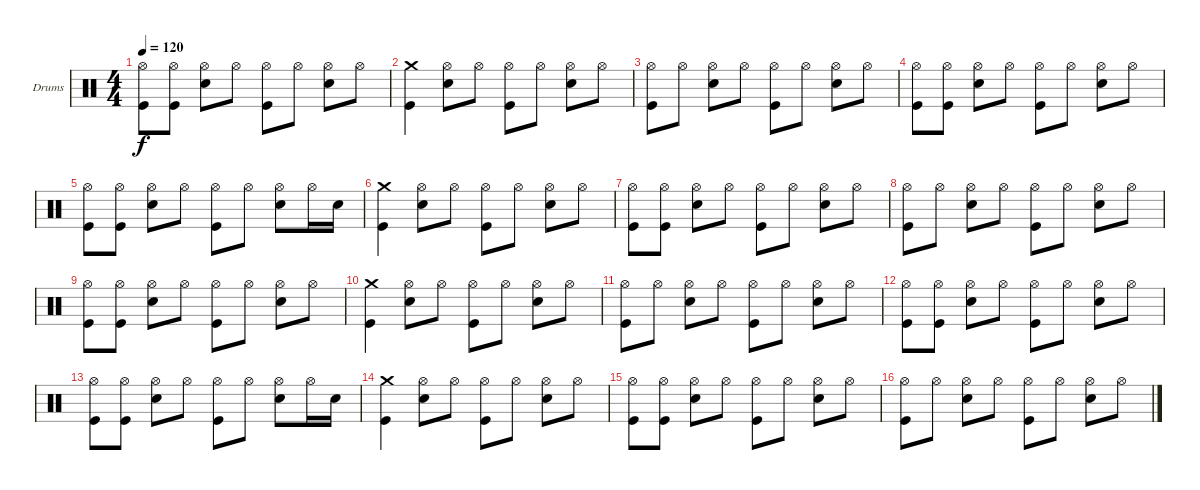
\defaultSystemsLayout 4
\bracketExtendMode groupsimilarinstruments
\firstSystemTrackNameOrientation horizontal
\otherSystemsTrackNameOrientation horizontal
\track ("Drums" "Drums") {instrument percussion}
\staff {score}
\articulation defaults
\ts (4 4)
\tempo 120
\clef neutral
\ks c
("Kick (hit)" "Hi-Hat (open)").8{dy f} ("Hi-Hat (open)" "Kick (hit)").8 ("Hi-Hat (open)" "Snare (hit) 2").8 "Hi-Hat (open)".8 ("Hi-Hat (open)" "Kick (hit)").8 "Hi-Hat (open)".8 ("Hi-Hat (open)" "Snare (hit) 2").8 "Hi-Hat (open)".8 |
("Kick (hit)" "Crash medium (hit)").4 ("Hi-Hat (open)" "Snare (hit) 2").8 "Hi-Hat (open)".8 ("Hi-Hat (open)" "Kick (hit)").8 "Hi-Hat (open)".8 ("Hi-Hat (open)" "Snare (hit) 2").8 "Hi-Hat (open)".8 |
("Kick (hit)" "Hi-Hat (open)").8 "Hi-Hat (open)".8 ("Hi-Hat (open)" "Snare (hit) 2").8 "Hi-Hat (open)".8 ("Hi-Hat (open)" "Kick (hit)").8 "Hi-Hat (open)".8 ("Hi-Hat (open)" "Snare (hit) 2").8 "Hi-Hat (open)".8 |
("Kick (hit)" "Hi-Hat (open)").8 ("Hi-Hat (open)" "Kick (hit)").8 ("Hi-Hat (open)" "Snare (hit) 2").8 "Hi-Hat (open)".8 ("Hi-Hat (open)" "Kick (hit)").8 "Hi-Hat (open)".8 ("Hi-Hat (open)" "Snare (hit) 2").8 "Hi-Hat (open)".8 |
("Kick (hit)" "Hi-Hat (open)").8 ("Hi-Hat (open)" "Kick (hit)").8 ("Hi-Hat (open)" "Snare (hit) 2").8 "Hi-Hat (open)".8 ("Hi-Hat (open)" "Kick (hit)").8 "Hi-Hat (open)".8 ("Hi-Hat (open)" "Snare (hit) 2").8 "Hi-Hat (open)".16 "Snare (hit) 2".16 |
("Kick (hit)" "Crash medium (hit)").4 ("Hi-Hat (open)" "Snare (hit) 2").8 "Hi-Hat (open)".8 ("Hi-Hat (open)" "Kick (hit)").8 "Hi-Hat (open)".8 ("Hi-Hat (open)" "Snare (hit) 2").8 "Hi-Hat (open)".8 |
("Kick (hit)" "Hi-Hat (open)").8 ("Hi-Hat (open)" "Kick (hit)").8 ("Hi-Hat (open)" "Snare (hit) 2").8 "Hi-Hat (open)".8 ("Hi-Hat (open)" "Kick (hit)").8 "Hi-Hat (open)".8 ("Hi-Hat (open)" "Snare (hit) 2").8 "Hi-Hat (open)".8 |
("Kick (hit)" "Hi-Hat (open)").8 "Hi-Hat (open)".8 ("Hi-Hat (open)" "Snare (hit) 2").8 "Hi-Hat (open)".8 ("Hi-Hat (open)" "Kick (hit)").8 "Hi-Hat (open)".8 ("Hi-Hat (open)" "Snare (hit) 2").8 "Hi-Hat (open)".8 |
("Kick (hit)" "Hi-Hat (open)").8 ("Hi-Hat (open)" "Kick (hit)").8 ("Hi-Hat (open)" "Snare (hit) 2").8 "Hi-Hat (open)".8 ("Hi-Hat (open)" "Kick (hit)").8 "Hi-Hat (open)".8 ("Hi-Hat (open)" "Snare (hit) 2").8 "Hi-Hat (open)".8 |
("Kick (hit)" "Crash medium (hit)").4 ("Hi-Hat (open)" "Snare (hit) 2").8 "Hi-Hat (open)".8 ("Hi-Hat (open)" "Kick (hit)").8 "Hi-Hat (open)".8 ("Hi-Hat (open)" "Snare (hit) 2").8 "Hi-Hat (open)".8 |
("Kick (hit)" "Hi-Hat (open)").8 "Hi-Hat (open)".8 ("Hi-Hat (open)" "Snare (hit) 2").8 "Hi-Hat (open)".8 ("Hi-Hat (open)" "Kick (hit)").8 "Hi-Hat (open)".8 ("Hi-Hat (open)" "Snare (hit) 2").8 "Hi-Hat (open)".8 |
("Kick (hit)" "Hi-Hat (open)").8 ("Hi-Hat (open)" "Kick (hit)").8 ("Hi-Hat (open)" "Snare (hit) 2").8 "Hi-Hat (open)".8 ("Hi-Hat (open)" "Kick (hit)").8 "Hi-Hat (open)".8 ("Hi-Hat (open)" "Snare (hit) 2").8 "Hi-Hat (open)".8 |
("Kick (hit)" "Hi-Hat (open)").8 ("Hi-Hat (open)" "Kick (hit)").8 ("Hi-Hat (open)" "Snare (hit) 2").8 "Hi-Hat (open)".8 ("Hi-Hat (open)" "Kick (hit)").8 "Hi-Hat (open)".8 ("Hi-Hat (open)" "Snare (hit) 2").8 "Hi-Hat (open)".16 "Snare (hit) 2".16 |
("Kick (hit)" "Crash medium (hit)").4 ("Hi-Hat (open)" "Snare (hit) 2").8 "Hi-Hat (open)".8 ("Hi-Hat (open)" "Kick (hit)").8 "Hi-Hat (open)".8 ("Hi-Hat (open)" "Snare (hit) 2").8 "Hi-Hat (open)".8 |
("Kick (hit)" "Hi-Hat (open)").8 ("Hi-Hat (open)" "Kick (hit)").8 ("Hi-Hat (open)" "Snare (hit) 2").8 "Hi-Hat (open)".8 ("Hi-Hat (open)" "Kick (hit)").8 "Hi-Hat (open)".8 ("Hi-Hat (open)" "Snare (hit) 2").8 "Hi-Hat (open)".8 |
("Kick (hit)" "Hi-Hat (open)").8 "Hi-Hat (open)".8 ("Hi-Hat (open)" "Snare (hit) 2").8 "Hi-Hat (open)".8 ("Hi-Hat (open)" "Kick (hit)").8 "Hi-Hat (open)".8 ("Hi-Hat (open)" "Snare (hit) 2").8 "Hi-Hat (open)".8
